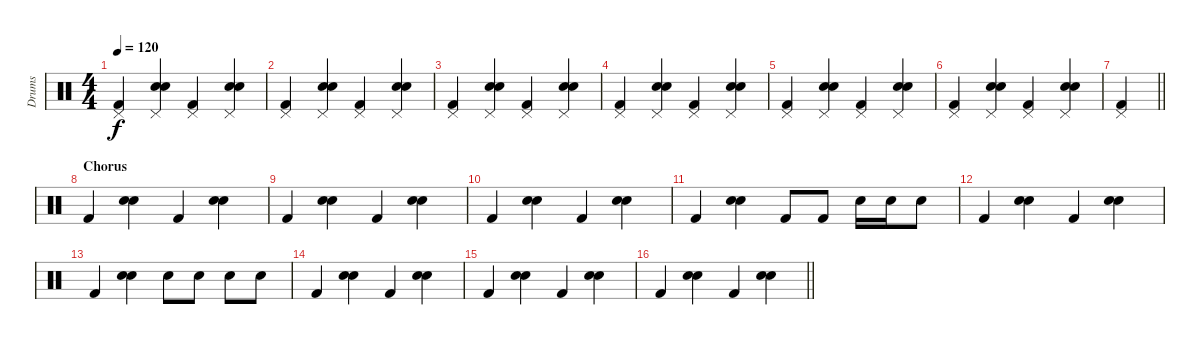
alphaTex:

\track ("Drums" "Drums") {instrument percussion}
\staff {score}
\articulation defaults
\ts (4 4)
\tempo 120
\clef neutral
\ks c
("Pedal Hi-Hat (hit)" "Kick (hit) 2").4{dy f} ("Pedal Hi-Hat (hit)" "Electric Snare (hit)" "Snare (hit) 2").4 ("Pedal Hi-Hat (hit)" "Kick (hit) 2").4 ("Pedal Hi-Hat (hit)" "Electric Snare (hit)" "Snare (hit) 2").4 |
("Pedal Hi-Hat (hit)" "Kick (hit) 2").4 ("Pedal Hi-Hat (hit)" "Electric Snare (hit)" "Snare (hit) 2").4 ("Pedal Hi-Hat (hit)" "Kick (hit) 2").4 ("Pedal Hi-Hat (hit)" "Electric Snare (hit)" "Snare (hit) 2").4 |
("Pedal Hi-Hat (hit)" "Kick (hit) 2").4 ("Pedal Hi-Hat (hit)" "Electric Snare (hit)" "Snare (hit) 2").4 ("Pedal Hi-Hat (hit)" "Kick (hit) 2").4 ("Pedal Hi-Hat (hit)" "Electric Snare (hit)" "Snare (hit) 2").4 |
("Pedal Hi-Hat (hit)" "Kick (hit) 2").4 ("Pedal Hi-Hat (hit)" "Electric Snare (hit)" "Snare (hit) 2").4 ("Pedal Hi-Hat (hit)" "Kick (hit) 2").4 ("Pedal Hi-Hat (hit)" "Electric Snare (hit)" "Snare (hit) 2").4 |
("Pedal Hi-Hat (hit)" "Kick (hit) 2").4 ("Pedal Hi-Hat (hit)" "Electric Snare (hit)" "Snare (hit) 2").4 ("Pedal Hi-Hat (hit)" "Kick (hit) 2").4 ("Pedal Hi-Hat (hit)" "Electric Snare (hit)" "Snare (hit) 2").4 |
("Pedal Hi-Hat (hit)" "Kick (hit) 2").4 ("Pedal Hi-Hat (hit)" "Electric Snare (hit)" "Snare (hit) 2").4 ("Pedal Hi-Hat (hit)" "Kick (hit) 2").4 ("Pedal Hi-Hat (hit)" "Electric Snare (hit)" "Snare (hit) 2").4 |
\barLineRight lightlight
("Pedal Hi-Hat (hit)" "Kick (hit) 2").4 |
\section ("" "Chorus")
"Kick (hit) 2".4 ("Electric Snare (hit)" "Snare (hit) 2").4 "Kick (hit) 2".4 ("Electric Snare (hit)" "Snare (hit) 2").4 |
"Kick (hit) 2".4 ("Electric Snare (hit)" "Snare (hit) 2").4 "Kick (hit) 2".4 ("Electric Snare (hit)" "Snare (hit) 2").4 |
"Kick (hit) 2".4 ("Electric Snare (hit)" "Snare (hit) 2").4 "Kick (hit) 2".4 ("Electric Snare (hit)" "Snare (hit) 2").4 |
"Kick (hit) 2".4 ("Electric Snare (hit)" "Snare (hit) 2").4 "Kick (hit) 2".8 "Kick (hit) 2".8 "Electric Snare (hit)".16 "Electric Snare (hit)".16 "Snare (hit) 2".8 |
"Kick (hit) 2".4 ("Electric Snare (hit)" "Snare (hit) 2").4 "Kick (hit) 2".4 ("Electric Snare (hit)" "Snare (hit) 2").4 |
"Kick (hit) 2".4 ("Electric Snare (hit)" "Snare (hit) 2").4 "Snare (hit) 2".8 "Snare (hit) 2".8 "Snare (hit) 2".8 "Snare (hit) 2".8 |
"Kick (hit) 2".4 ("Electric Snare (hit)" "Snare (hit) 2").4 "Kick (hit) 2".4 ("Electric Snare (hit)" "Snare (hit) 2").4 |
"Kick (hit) 2".4 ("Electric Snare (hit)" "Snare (hit) 2").4 "Kick (hit) 2".4 ("Electric Snare (hit)" "Snare (hit) 2").4 |
\barLineRight lightlight "Kick (hit) 2".4
("Electric Snare (hit)" "Snare (hit) 2").4 "Kick (hit) 2".4 ("Electric Snare (hit)" "Snare (hit) 2").4
